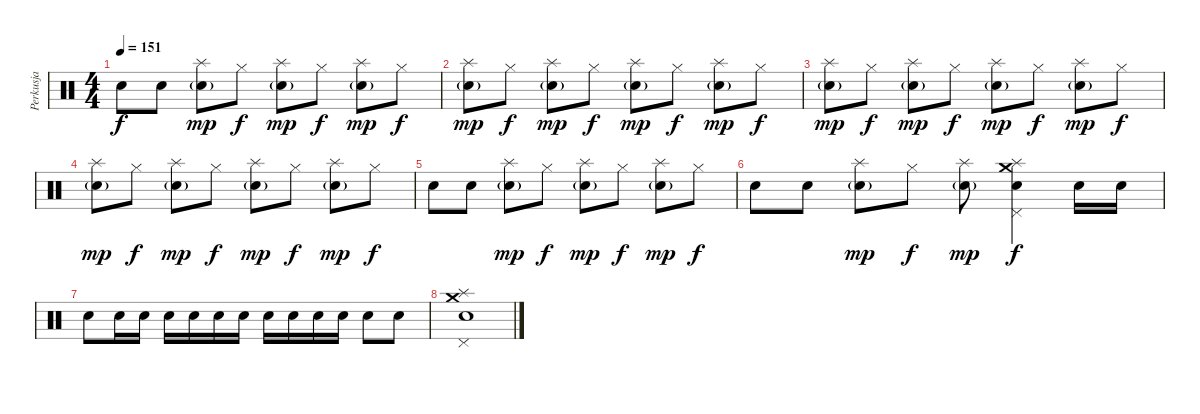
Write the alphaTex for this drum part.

\track ("Perkusja" "Perkusja") {instrument percussion}
\staff {score}
\articulation defaults
\ts (4 4)
\tempo 151
\clef neutral
\ks c "Snare (hit) 2".8{dy f} "Snare (hit) 2".8
("Splash (hit)" "Snare (hit) 2"{g}).8{dy mp} "Hi-Hat (closed)".8{dy f} ("Splash (hit)" "Snare (hit) 2"{g}).8{dy mp} "Hi-Hat (closed)".8{dy f} ("Splash (hit)" "Snare (hit) 2"{g}).8{dy mp} "Hi-Hat (closed)".8{dy f} |
("Splash (hit)" "Snare (hit) 2"{g}).8{dy mp} "Hi-Hat (closed)".8{dy f} ("Splash (hit)" "Snare (hit) 2"{g}).8{dy mp} "Hi-Hat (closed)".8{dy f} ("Splash (hit)" "Snare (hit) 2"{g}).8{dy mp} "Hi-Hat (closed)".8{dy f} ("Splash (hit)" "Snare (hit) 2"{g}).8{dy mp} "Hi-Hat (closed)".8{dy f} |
("Splash (hit)" "Snare (hit) 2"{g}).8{dy mp} "Hi-Hat (closed)".8{dy f} ("Splash (hit)" "Snare (hit) 2"{g}).8{dy mp} "Hi-Hat (closed)".8{dy f} ("Splash (hit)" "Snare (hit) 2"{g}).8{dy mp} "Hi-Hat (closed)".8{dy f} ("Splash (hit)" "Snare (hit) 2"{g}).8{dy mp} "Hi-Hat (closed)".8{dy f} |
("Splash (hit)" "Snare (hit) 2"{g}).8{dy mp} "Hi-Hat (closed)".8{dy f} ("Splash (hit)" "Snare (hit) 2"{g}).8{dy mp} "Hi-Hat (closed)".8{dy f} ("Splash (hit)" "Snare (hit) 2"{g}).8{dy mp} "Hi-Hat (closed)".8{dy f} ("Splash (hit)" "Snare (hit) 2"{g}).8{dy mp} "Hi-Hat (closed)".8{dy f} |
"Snare (hit) 2".8 "Snare (hit) 2".8 ("Splash (hit)" "Snare (hit) 2"{g}).8{dy mp} "Hi-Hat (closed)".8{dy f} ("Splash (hit)" "Snare (hit) 2"{g}).8{dy mp} "Hi-Hat (closed)".8{dy f} ("Splash (hit)" "Snare (hit) 2"{g}).8{dy mp} "Hi-Hat (closed)".8{dy f} |
"Snare (hit) 2".8 "Snare (hit) 2".8 ("Splash (hit)" "Snare (hit) 2"{g}).8{dy mp} "Hi-Hat (closed)".8{dy f} ("Splash (hit)" "Snare (hit) 2"{g}).8{dy mp} ("Splash (hit)" "Pedal Hi-Hat (hit)" "Snare (hit) 2" "Crash medium (hit)").4{dy f} "Snare (hit) 2".16 "Snare (hit) 2".16 |
"Snare (hit) 2".8 "Snare (hit) 2".16 "Snare (hit) 2".16 "Snare (hit) 2".16 "Snare (hit) 2".16 "Snare (hit) 2".16 "Snare (hit) 2".16 "Snare (hit) 2".16 "Snare (hit) 2".16 "Snare (hit) 2".16 "Snare (hit) 2".16 "Snare (hit) 2".8 "Snare (hit) 2".8 |
("Splash (hit)" "Pedal Hi-Hat (hit)" "Snare (hit) 2" "Crash medium (hit)").1
